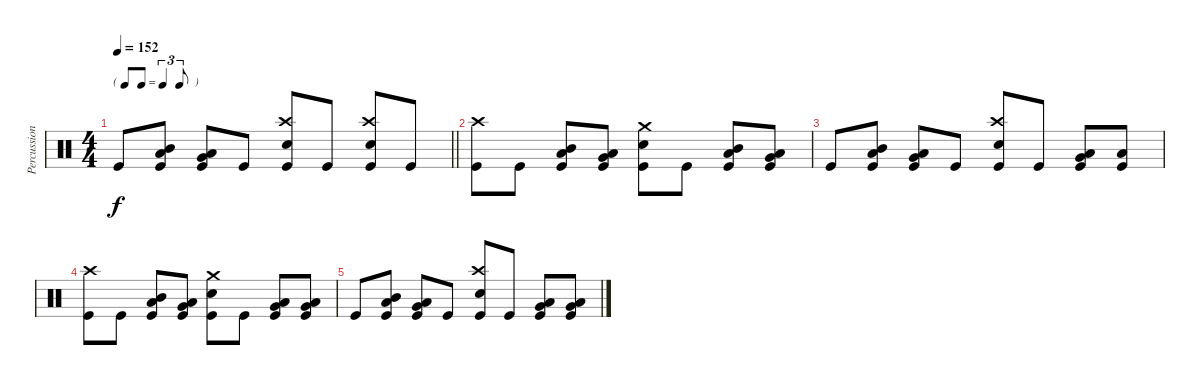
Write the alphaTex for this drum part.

\track ("Percussion" "Percussion") {instrument percussion}
\staff {score}
\articulation defaults
\ts (4 4)
\tf triplet8th
\tempo 152
\clef neutral
\barLineRight lightlight
\ks c "Kick (hit)".8{dy f}
("Low Tom (hit)" "Mid Tom (hit)" "Kick (hit)").8 ("Very Low Tom (hit)" "Low Tom (hit)" "Kick (hit)").8 "Kick (hit)".8 ("Crash high (hit)" "Snare (hit) 2" "Kick (hit)").8 "Kick (hit)".8 ("Crash high (hit)" "Snare (hit) 2" "Kick (hit)").8 "Kick (hit)".8 |
("Crash high (hit)" "Kick (hit)").8 "Kick (hit)".8 ("Mid Tom (hit)" "Low Tom (hit)" "Kick (hit)").8 ("Low Tom (hit)" "Very Low Tom (hit)" "Kick (hit)").8 ("Snare (hit) 2" "Crash medium (hit)" "Kick (hit)").8 "Kick (hit)".8 ("Low Tom (hit)" "Mid Tom (hit)" "Kick (hit)").8 ("Low Tom (hit)" "Very Low Tom (hit)" "Kick (hit)").8 |
"Kick (hit)".8 ("Low Tom (hit)" "Mid Tom (hit)" "Kick (hit)").8 ("Very Low Tom (hit)" "Low Tom (hit)" "Kick (hit)").8 "Kick (hit)".8 ("Crash high (hit)" "Snare (hit) 2" "Kick (hit)").8 "Kick (hit)".8 ("Very Low Tom (hit)" "Low Tom (hit)" "Kick (hit)").8 ("Low Floor Tom (hit)" "Kick (hit)").8 |
("Crash high (hit)" "Kick (hit)").8 "Kick (hit)".8 ("Mid Tom (hit)" "Low Tom (hit)" "Kick (hit)").8 ("Low Tom (hit)" "Very Low Tom (hit)" "Kick (hit)").8 ("Snare (hit) 2" "Crash medium (hit)" "Kick (hit)").8 "Kick (hit)".8 ("Very Low Tom (hit)" "Low Tom (hit)" "Kick (hit)").8 ("Very Low Tom (hit)" "Low Floor Tom (hit)" "Kick (hit)").8 |
"Kick (hit)".8 ("Low Tom (hit)" "Mid Tom (hit)" "Kick (hit)").8 ("Very Low Tom (hit)" "Low Tom (hit)" "Kick (hit)").8 "Kick (hit)".8 ("Crash high (hit)" "Snare (hit) 2" "Kick (hit)").8 "Kick (hit)".8 ("Low Tom (hit)" "Very Low Tom (hit)" "Kick (hit)").8 ("Very Low Tom (hit)" "Low Floor Tom (hit)" "Kick (hit)").8
